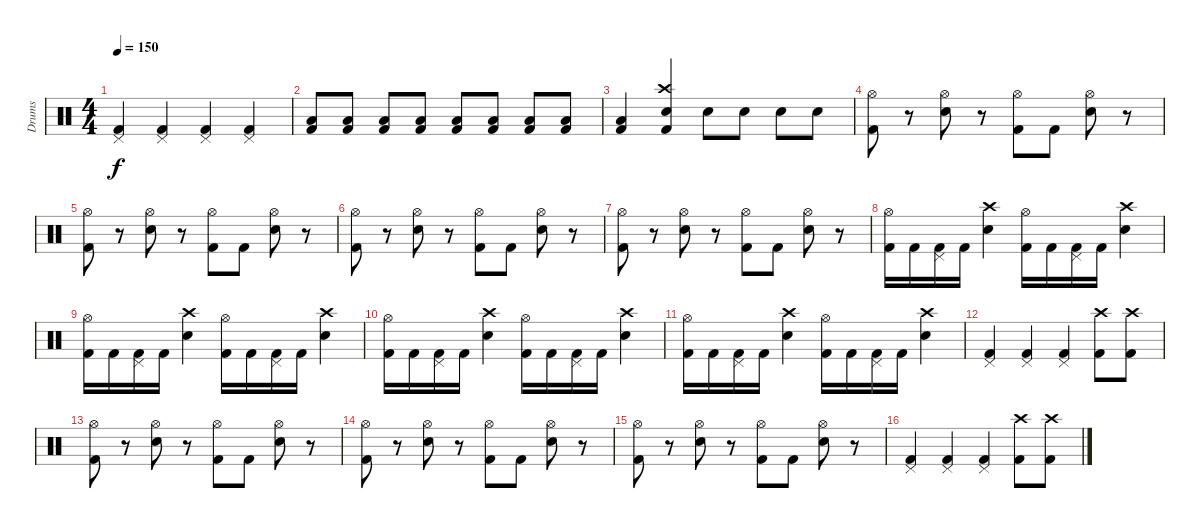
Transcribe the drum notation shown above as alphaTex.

\track ("Drums" "Drums") {instrument percussion}
\staff {score}
\articulation defaults
\ts (4 4)
\tempo 150
\clef neutral
\ks c
("Pedal Hi-Hat (hit)" "Kick (hit) 2").4{dy f} ("Pedal Hi-Hat (hit)" "Kick (hit) 2").4 ("Pedal Hi-Hat (hit)" "Kick (hit) 2").4 ("Pedal Hi-Hat (hit)" "Kick (hit) 2").4 |
("Low Tom (hit)" "Kick (hit) 2").8 ("Low Tom (hit)" "Kick (hit) 2").8 ("Low Tom (hit)" "Kick (hit) 2").8 ("Low Tom (hit)" "Kick (hit) 2").8 ("Low Tom (hit)" "Kick (hit) 2").8 ("Low Tom (hit)" "Kick (hit) 2").8 ("Low Tom (hit)" "Kick (hit) 2").8 ("Low Tom (hit)" "Kick (hit) 2").8 |
("Low Tom (hit)" "Kick (hit) 2").4 ("Crash high (hit)" "Snare (hit) 2" "Kick (hit) 2").4 "Snare (hit) 2".8 "Snare (hit) 2".8 "Snare (hit) 2".8 "Snare (hit) 2".8 |
("Hi-Hat (open)" "Kick (hit) 2").8 r.8 ("Hi-Hat (open)" "Snare (hit) 2").8 r.8 ("Hi-Hat (open)" "Kick (hit) 2").8 "Kick (hit) 2".8 ("Hi-Hat (open)" "Snare (hit) 2").8 r.8 |
("Hi-Hat (open)" "Kick (hit) 2").8 r.8 ("Hi-Hat (open)" "Snare (hit) 2").8 r.8 ("Hi-Hat (open)" "Kick (hit) 2").8 "Kick (hit) 2".8 ("Hi-Hat (open)" "Snare (hit) 2").8 r.8 |
("Hi-Hat (open)" "Kick (hit) 2").8 r.8 ("Hi-Hat (open)" "Snare (hit) 2").8 r.8 ("Hi-Hat (open)" "Kick (hit) 2").8 "Kick (hit) 2".8 ("Hi-Hat (open)" "Snare (hit) 2").8 r.8 |
("Hi-Hat (open)" "Kick (hit) 2").8 r.8 ("Hi-Hat (open)" "Snare (hit) 2").8 r.8 ("Hi-Hat (open)" "Kick (hit) 2").8 "Kick (hit) 2".8 ("Hi-Hat (open)" "Snare (hit) 2").8 r.8 |
("Hi-Hat (open)" "Kick (hit) 2").16 "Kick (hit) 2".16 ("Pedal Hi-Hat (hit)" "Kick (hit) 2").16 "Kick (hit) 2".16 ("Crash high (hit)" "Snare (hit) 2").4 ("Hi-Hat (open)" "Kick (hit) 2").16 "Kick (hit) 2".16 ("Pedal Hi-Hat (hit)" "Kick (hit) 2").16 "Kick (hit) 2".16 ("Crash high (hit)" "Snare (hit) 2").4 |
("Hi-Hat (open)" "Kick (hit) 2").16 "Kick (hit) 2".16 ("Pedal Hi-Hat (hit)" "Kick (hit) 2").16 "Kick (hit) 2".16 ("Crash high (hit)" "Snare (hit) 2").4 ("Hi-Hat (open)" "Kick (hit) 2").16 "Kick (hit) 2".16 ("Pedal Hi-Hat (hit)" "Kick (hit) 2").16 "Kick (hit) 2".16 ("Crash high (hit)" "Snare (hit) 2").4 |
("Hi-Hat (open)" "Kick (hit) 2").16 "Kick (hit) 2".16 ("Pedal Hi-Hat (hit)" "Kick (hit) 2").16 "Kick (hit) 2".16 ("Crash high (hit)" "Snare (hit) 2").4 ("Hi-Hat (open)" "Kick (hit) 2").16 "Kick (hit) 2".16 ("Pedal Hi-Hat (hit)" "Kick (hit) 2").16 "Kick (hit) 2".16 ("Crash high (hit)" "Snare (hit) 2").4 |
("Hi-Hat (open)" "Kick (hit) 2").16 "Kick (hit) 2".16 ("Pedal Hi-Hat (hit)" "Kick (hit) 2").16 "Kick (hit) 2".16 ("Crash high (hit)" "Snare (hit) 2").4 ("Hi-Hat (open)" "Kick (hit) 2").16 "Kick (hit) 2".16 ("Pedal Hi-Hat (hit)" "Kick (hit) 2").16 "Kick (hit) 2".16 ("Crash high (hit)" "Snare (hit) 2").4 |
("Pedal Hi-Hat (hit)" "Kick (hit) 2").4 ("Pedal Hi-Hat (hit)" "Kick (hit) 2").4 ("Pedal Hi-Hat (hit)" "Kick (hit) 2").4 ("Crash high (hit)" "Kick (hit) 2").8 ("Crash high (hit)" "Kick (hit) 2").8 |
("Hi-Hat (open)" "Kick (hit) 2").8 r.8 ("Hi-Hat (open)" "Snare (hit) 2").8 r.8 ("Hi-Hat (open)" "Kick (hit) 2").8 "Kick (hit) 2".8 ("Hi-Hat (open)" "Snare (hit) 2").8 r.8 |
("Hi-Hat (open)" "Kick (hit) 2").8 r.8 ("Hi-Hat (open)" "Snare (hit) 2").8 r.8 ("Hi-Hat (open)" "Kick (hit) 2").8 "Kick (hit) 2".8 ("Hi-Hat (open)" "Snare (hit) 2").8 r.8 |
("Hi-Hat (open)" "Kick (hit) 2").8 r.8 ("Hi-Hat (open)" "Snare (hit) 2").8 r.8 ("Hi-Hat (open)" "Kick (hit) 2").8 "Kick (hit) 2".8 ("Hi-Hat (open)" "Snare (hit) 2").8 r.8 |
("Pedal Hi-Hat (hit)" "Kick (hit) 2").4 ("Pedal Hi-Hat (hit)" "Kick (hit) 2").4 ("Pedal Hi-Hat (hit)" "Kick (hit) 2").4 ("Crash high (hit)" "Kick (hit) 2").8 ("Crash high (hit)" "Kick (hit) 2").8
